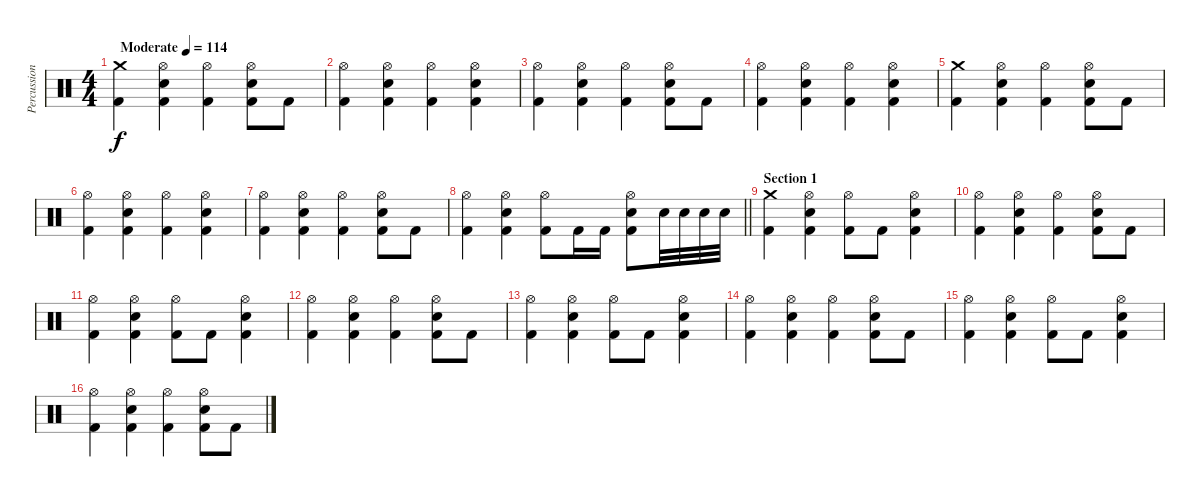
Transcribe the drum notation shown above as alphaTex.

\track ("Percussion" "Percussion") {instrument percussion}
\staff {score}
\articulation defaults
\ts (4 4)
\tempo (114 "Moderate")
\clef neutral
\ks c
("Crash medium (hit)" "Kick (hit) 2").4{dy f} ("Snare (hit) 2" "Hi-Hat (open)" "Kick (hit) 2").4 ("Hi-Hat (open)" "Kick (hit) 2").4 ("Snare (hit) 2" "Hi-Hat (open)" "Kick (hit) 2").8 "Kick (hit) 2".8 |
("Hi-Hat (open)" "Kick (hit) 2").4 ("Snare (hit) 2" "Hi-Hat (open)" "Kick (hit) 2").4 ("Hi-Hat (open)" "Kick (hit) 2").4 ("Snare (hit) 2" "Hi-Hat (open)" "Kick (hit) 2").4 |
("Hi-Hat (open)" "Kick (hit) 2").4 ("Snare (hit) 2" "Hi-Hat (open)" "Kick (hit) 2").4 ("Hi-Hat (open)" "Kick (hit) 2").4 ("Snare (hit) 2" "Hi-Hat (open)" "Kick (hit) 2").8 "Kick (hit) 2".8 |
("Hi-Hat (open)" "Kick (hit) 2").4 ("Snare (hit) 2" "Hi-Hat (open)" "Kick (hit) 2").4 ("Hi-Hat (open)" "Kick (hit) 2").4 ("Snare (hit) 2" "Hi-Hat (open)" "Kick (hit) 2").4 |
("Crash medium (hit)" "Kick (hit) 2").4 ("Snare (hit) 2" "Hi-Hat (open)" "Kick (hit) 2").4 ("Hi-Hat (open)" "Kick (hit) 2").4 ("Snare (hit) 2" "Hi-Hat (open)" "Kick (hit) 2").8 "Kick (hit) 2".8 |
("Hi-Hat (open)" "Kick (hit) 2").4 ("Snare (hit) 2" "Hi-Hat (open)" "Kick (hit) 2").4 ("Hi-Hat (open)" "Kick (hit) 2").4 ("Snare (hit) 2" "Hi-Hat (open)" "Kick (hit) 2").4 |
("Hi-Hat (open)" "Kick (hit) 2").4 ("Snare (hit) 2" "Hi-Hat (open)" "Kick (hit) 2").4 ("Hi-Hat (open)" "Kick (hit) 2").4 ("Snare (hit) 2" "Hi-Hat (open)" "Kick (hit) 2").8 "Kick (hit) 2".8 |
\barLineRight lightlight
("Hi-Hat (open)" "Kick (hit) 2").4 ("Snare (hit) 2" "Hi-Hat (open)" "Kick (hit) 2").4 ("Hi-Hat (open)" "Kick (hit) 2").8 "Kick (hit) 2".16 "Kick (hit) 2".16 ("Snare (hit) 2" "Hi-Hat (open)" "Kick (hit) 2").8 "Snare (hit) 2".32 "Snare (hit) 2".32 "Snare (hit) 2".32 "Snare (hit) 2".32 |
\section ("" "Section 1")
("Crash medium (hit)" "Kick (hit) 2").4 ("Snare (hit) 2" "Hi-Hat (open)" "Kick (hit) 2").4 ("Hi-Hat (open)" "Kick (hit) 2").8 "Kick (hit) 2".8 ("Snare (hit) 2" "Hi-Hat (open)" "Kick (hit) 2").4 |
("Hi-Hat (open)" "Kick (hit) 2").4 ("Snare (hit) 2" "Hi-Hat (open)" "Kick (hit) 2").4 ("Hi-Hat (open)" "Kick (hit) 2").4 ("Snare (hit) 2" "Hi-Hat (open)" "Kick (hit) 2").8 "Kick (hit) 2".8 |
("Hi-Hat (open)" "Kick (hit) 2").4 ("Snare (hit) 2" "Hi-Hat (open)" "Kick (hit) 2").4 ("Hi-Hat (open)" "Kick (hit) 2").8 "Kick (hit) 2".8 ("Snare (hit) 2" "Hi-Hat (open)" "Kick (hit) 2").4 |
("Hi-Hat (open)" "Kick (hit) 2").4 ("Snare (hit) 2" "Hi-Hat (open)" "Kick (hit) 2").4 ("Hi-Hat (open)" "Kick (hit) 2").4 ("Snare (hit) 2" "Hi-Hat (open)" "Kick (hit) 2").8 "Kick (hit) 2".8 |
("Hi-Hat (open)" "Kick (hit) 2").4 ("Snare (hit) 2" "Hi-Hat (open)" "Kick (hit) 2").4 ("Hi-Hat (open)" "Kick (hit) 2").8 "Kick (hit) 2".8 ("Snare (hit) 2" "Hi-Hat (open)" "Kick (hit) 2").4 |
("Hi-Hat (open)" "Kick (hit) 2").4 ("Snare (hit) 2" "Hi-Hat (open)" "Kick (hit) 2").4 ("Hi-Hat (open)" "Kick (hit) 2").4 ("Snare (hit) 2" "Hi-Hat (open)" "Kick (hit) 2").8 "Kick (hit) 2".8 |
("Hi-Hat (open)" "Kick (hit) 2").4 ("Snare (hit) 2" "Hi-Hat (open)" "Kick (hit) 2").4 ("Hi-Hat (open)" "Kick (hit) 2").8 "Kick (hit) 2".8 ("Snare (hit) 2" "Hi-Hat (open)" "Kick (hit) 2").4 |
("Hi-Hat (open)" "Kick (hit) 2").4 ("Snare (hit) 2" "Hi-Hat (open)" "Kick (hit) 2").4 ("Hi-Hat (open)" "Kick (hit) 2").4 ("Snare (hit) 2" "Hi-Hat (open)" "Kick (hit) 2").8 "Kick (hit) 2".8
